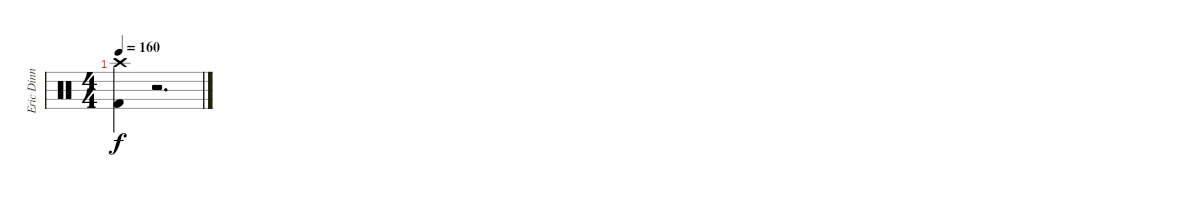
\track ("Eric Dinn" "Eric Dinn") {instrument percussion}
\staff {score}
\articulation defaults
\ts (4 4)
\tempo 160
\clef neutral
\ks c
("Crash high (hit)" "Kick (hit) 2").4{dy f} r.2{d}
